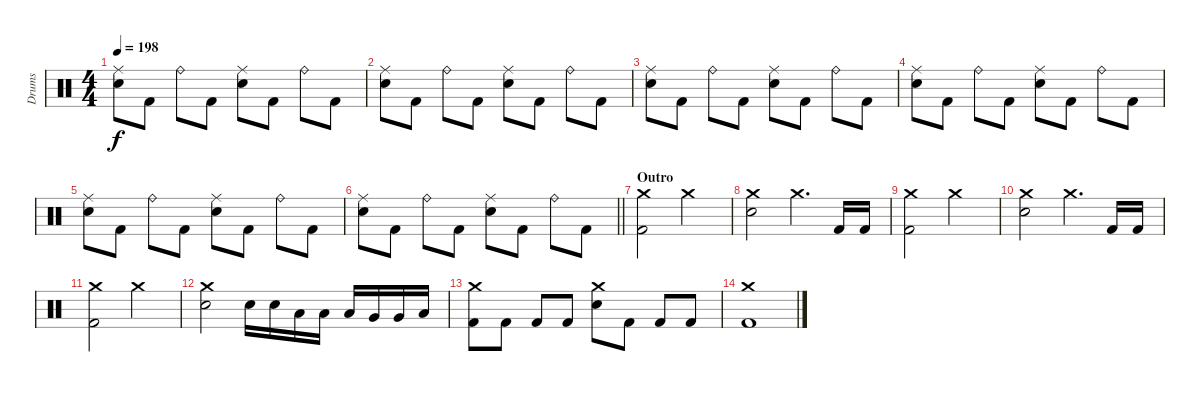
\track ("Drums" "Drums") {instrument percussion}
\staff {score}
\articulation defaults
\ts (4 4)
\tempo 198
\clef neutral
\ks c
("Ride (middle)" "Electric Snare (hit)").8{dy f} "Kick (hit) 2".8 "Ride (bell)".8 "Kick (hit) 2".8 ("Ride (middle)" "Electric Snare (hit)").8 "Kick (hit) 2".8 "Ride (bell)".8 "Kick (hit) 2".8 |
("Ride (middle)" "Electric Snare (hit)").8 "Kick (hit) 2".8 "Ride (bell)".8 "Kick (hit) 2".8 ("Ride (middle)" "Electric Snare (hit)").8 "Kick (hit) 2".8 "Ride (bell)".8 "Kick (hit) 2".8 |
("Ride (middle)" "Electric Snare (hit)").8 "Kick (hit) 2".8 "Ride (bell)".8 "Kick (hit) 2".8 ("Ride (middle)" "Electric Snare (hit)").8 "Kick (hit) 2".8 "Ride (bell)".8 "Kick (hit) 2".8 |
("Ride (middle)" "Electric Snare (hit)").8 "Kick (hit) 2".8 "Ride (bell)".8 "Kick (hit) 2".8 ("Ride (middle)" "Electric Snare (hit)").8 "Kick (hit) 2".8 "Ride (bell)".8 "Kick (hit) 2".8 |
("Ride (middle)" "Electric Snare (hit)").8 "Kick (hit) 2".8 "Ride (bell)".8 "Kick (hit) 2".8 ("Ride (middle)" "Electric Snare (hit)").8 "Kick (hit) 2".8 "Ride (bell)".8 "Kick (hit) 2".8 |
\barLineRight lightlight
("Ride (middle)" "Electric Snare (hit)").8 "Kick (hit) 2".8 "Ride (bell)".8 "Kick (hit) 2".8 ("Ride (middle)" "Electric Snare (hit)").8 "Kick (hit) 2".8 "Ride (bell)".8 "Kick (hit) 2".8 |
\section ("" "Outro")
("Crash medium (hit)" "Kick (hit) 2").2 "Crash medium (hit)".2 |
("Crash medium (hit)" "Electric Snare (hit)").2 "Crash medium (hit)".4{d} "Kick (hit) 2".16 "Kick (hit) 2".16 |
("Crash medium (hit)" "Kick (hit) 2").2 "Crash medium (hit)".2 |
("Crash medium (hit)" "Electric Snare (hit)").2 "Crash medium (hit)".4{d} "Kick (hit) 2".16 "Kick (hit) 2".16 |
("Crash medium (hit)" "Kick (hit) 2").2 "Crash medium (hit)".2 |
("Crash medium (hit)" "Electric Snare (hit)").2 "Electric Snare (hit)".16 "Electric Snare (hit)".16 "Low Tom (hit)".16 "Low Tom (hit)".16 "Low Tom (hit)".16 "Very Low Tom (hit)".16 "Very Low Tom (hit)".16 "Low Floor Tom (hit)".16 |
("Crash medium (hit)" "Kick (hit) 2").8 "Kick (hit) 2".8 "Kick (hit) 2".8 "Kick (hit) 2".8 ("Crash medium (hit)" "Electric Snare (hit)").8 "Kick (hit) 2".8 "Kick (hit) 2".8 "Kick (hit) 2".8 |
("Crash medium (hit)" "Kick (hit) 2").1
